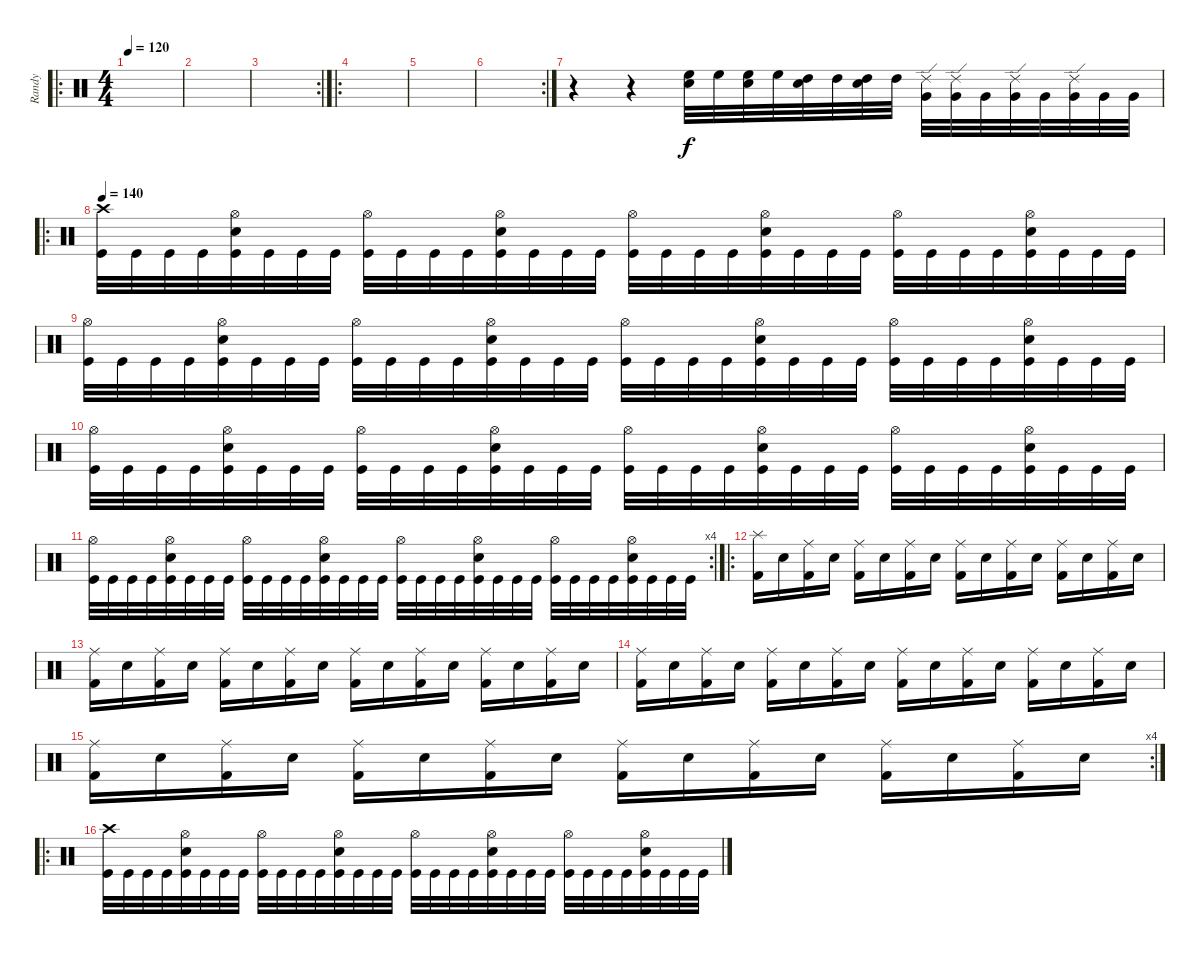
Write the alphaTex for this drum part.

\track ("Randy" "Randy") {instrument percussion}
\staff {score}
\articulation defaults
\ro
\ts (4 4)
\tempo 120
\clef neutral
\ks c
|
|
\rc 2
|
\ro
|
|
\rc 2
|
r.4 r.4 ("Snare (hit) 2" "High Floor Tom (hit)").32 "High Floor Tom (hit)".32 ("Snare (hit) 2" "High Floor Tom (hit)").32 "High Floor Tom (hit)".32 ("Snare (hit) 2" "High Tom (hit)").32 "High Tom (hit)".32 ("Snare (hit) 2" "High Tom (hit)").32 "High Tom (hit)".32 ("Ride (edge) 2" "Very Low Tom (hit)").32 ("Ride (edge) 2" "Very Low Tom (hit)").32 "Very Low Tom (hit)".32 ("Ride (edge) 2" "Very Low Tom (hit)").32 "Very Low Tom (hit)".32 ("Ride (edge) 2" "Very Low Tom (hit)").32 "Very Low Tom (hit)".32 "Very Low Tom (hit)".32 |
\ro
\tempo 140
("Kick (hit)" "Crash high (hit)").32 "Kick (hit)".32 "Kick (hit)".32 "Kick (hit)".32 ("Kick (hit)" "Snare (hit) 2" "Hi-Hat (open)").32 "Kick (hit)".32 "Kick (hit)".32 "Kick (hit)".32 ("Kick (hit)" "Hi-Hat (open)").32 "Kick (hit)".32 "Kick (hit)".32 "Kick (hit)".32 ("Kick (hit)" "Snare (hit) 2" "Hi-Hat (open)").32 "Kick (hit)".32 "Kick (hit)".32 "Kick (hit)".32 ("Kick (hit)" "Hi-Hat (open)").32 "Kick (hit)".32 "Kick (hit)".32 "Kick (hit)".32 ("Kick (hit)" "Snare (hit) 2" "Hi-Hat (open)").32 "Kick (hit)".32 "Kick (hit)".32 "Kick (hit)".32 ("Kick (hit)" "Hi-Hat (open)").32 "Kick (hit)".32 "Kick (hit)".32 "Kick (hit)".32 ("Kick (hit)" "Snare (hit) 2" "Hi-Hat (open)").32 "Kick (hit)".32 "Kick (hit)".32 "Kick (hit)".32 |
("Kick (hit)" "Hi-Hat (open)").32 "Kick (hit)".32 "Kick (hit)".32 "Kick (hit)".32 ("Kick (hit)" "Snare (hit) 2" "Hi-Hat (open)").32 "Kick (hit)".32 "Kick (hit)".32 "Kick (hit)".32 ("Kick (hit)" "Hi-Hat (open)").32 "Kick (hit)".32 "Kick (hit)".32 "Kick (hit)".32 ("Kick (hit)" "Snare (hit) 2" "Hi-Hat (open)").32 "Kick (hit)".32 "Kick (hit)".32 "Kick (hit)".32 ("Kick (hit)" "Hi-Hat (open)").32 "Kick (hit)".32 "Kick (hit)".32 "Kick (hit)".32 ("Kick (hit)" "Snare (hit) 2" "Hi-Hat (open)").32 "Kick (hit)".32 "Kick (hit)".32 "Kick (hit)".32 ("Kick (hit)" "Hi-Hat (open)").32 "Kick (hit)".32 "Kick (hit)".32 "Kick (hit)".32 ("Kick (hit)" "Snare (hit) 2" "Hi-Hat (open)").32 "Kick (hit)".32 "Kick (hit)".32 "Kick (hit)".32 |
("Kick (hit)" "Hi-Hat (open)").32 "Kick (hit)".32 "Kick (hit)".32 "Kick (hit)".32 ("Kick (hit)" "Snare (hit) 2" "Hi-Hat (open)").32 "Kick (hit)".32 "Kick (hit)".32 "Kick (hit)".32 ("Kick (hit)" "Hi-Hat (open)").32 "Kick (hit)".32 "Kick (hit)".32 "Kick (hit)".32 ("Kick (hit)" "Snare (hit) 2" "Hi-Hat (open)").32 "Kick (hit)".32 "Kick (hit)".32 "Kick (hit)".32 ("Kick (hit)" "Hi-Hat (open)").32 "Kick (hit)".32 "Kick (hit)".32 "Kick (hit)".32 ("Kick (hit)" "Snare (hit) 2" "Hi-Hat (open)").32 "Kick (hit)".32 "Kick (hit)".32 "Kick (hit)".32 ("Kick (hit)" "Hi-Hat (open)").32 "Kick (hit)".32 "Kick (hit)".32 "Kick (hit)".32 ("Kick (hit)" "Snare (hit) 2" "Hi-Hat (open)").32 "Kick (hit)".32 "Kick (hit)".32 "Kick (hit)".32 |
\rc 4
("Kick (hit)" "Hi-Hat (open)").32 "Kick (hit)".32 "Kick (hit)".32 "Kick (hit)".32 ("Kick (hit)" "Snare (hit) 2" "Hi-Hat (open)").32 "Kick (hit)".32 "Kick (hit)".32 "Kick (hit)".32 ("Kick (hit)" "Hi-Hat (open)").32 "Kick (hit)".32 "Kick (hit)".32 "Kick (hit)".32 ("Kick (hit)" "Snare (hit) 2" "Hi-Hat (open)").32 "Kick (hit)".32 "Kick (hit)".32 "Kick (hit)".32 ("Kick (hit)" "Hi-Hat (open)").32 "Kick (hit)".32 "Kick (hit)".32 "Kick (hit)".32 ("Kick (hit)" "Snare (hit) 2" "Hi-Hat (open)").32 "Kick (hit)".32 "Kick (hit)".32 "Kick (hit)".32 ("Kick (hit)" "Hi-Hat (open)").32 "Kick (hit)".32 "Kick (hit)".32 "Kick (hit)".32 ("Kick (hit)" "Snare (hit) 2" "Hi-Hat (open)").32 "Kick (hit)".32 "Kick (hit)".32 "Kick (hit)".32 |
\ro
("Splash (hit)" "Kick (hit) 2").16 "Snare (hit) 2".16 ("Ride (middle)" "Kick (hit) 2").16 "Snare (hit) 2".16 ("Ride (middle)" "Kick (hit) 2").16 "Snare (hit) 2".16 ("Ride (middle)" "Kick (hit) 2").16 "Snare (hit) 2".16 ("Ride (middle)" "Kick (hit) 2").16 "Snare (hit) 2".16 ("Ride (middle)" "Kick (hit) 2").16 "Snare (hit) 2".16 ("Ride (middle)" "Kick (hit) 2").16 "Snare (hit) 2".16 ("Ride (middle)" "Kick (hit) 2").16 "Snare (hit) 2".16 |
("Ride (middle)" "Kick (hit) 2").16 "Snare (hit) 2".16 ("Ride (middle)" "Kick (hit) 2").16 "Snare (hit) 2".16 ("Ride (middle)" "Kick (hit) 2").16 "Snare (hit) 2".16 ("Ride (middle)" "Kick (hit) 2").16 "Snare (hit) 2".16 ("Ride (middle)" "Kick (hit) 2").16 "Snare (hit) 2".16 ("Ride (middle)" "Kick (hit) 2").16 "Snare (hit) 2".16 ("Ride (middle)" "Kick (hit) 2").16 "Snare (hit) 2".16 ("Ride (middle)" "Kick (hit) 2").16 "Snare (hit) 2".16 |
("Ride (middle)" "Kick (hit) 2").16 "Snare (hit) 2".16 ("Ride (middle)" "Kick (hit) 2").16 "Snare (hit) 2".16 ("Ride (middle)" "Kick (hit) 2").16 "Snare (hit) 2".16 ("Ride (middle)" "Kick (hit) 2").16 "Snare (hit) 2".16 ("Ride (middle)" "Kick (hit) 2").16 "Snare (hit) 2".16 ("Ride (middle)" "Kick (hit) 2").16 "Snare (hit) 2".16 ("Ride (middle)" "Kick (hit) 2").16 "Snare (hit) 2".16 ("Ride (middle)" "Kick (hit) 2").16 "Snare (hit) 2".16 |
\rc 4
("Ride (middle)" "Kick (hit) 2").16 "Snare (hit) 2".16 ("Ride (middle)" "Kick (hit) 2").16 "Snare (hit) 2".16 ("Ride (middle)" "Kick (hit) 2").16 "Snare (hit) 2".16 ("Ride (middle)" "Kick (hit) 2").16 "Snare (hit) 2".16 ("Ride (middle)" "Kick (hit) 2").16 "Snare (hit) 2".16 ("Ride (middle)" "Kick (hit) 2").16 "Snare (hit) 2".16 ("Ride (middle)" "Kick (hit) 2").16 "Snare (hit) 2".16 ("Ride (middle)" "Kick (hit) 2").16 "Snare (hit) 2".16 |
\ro
("Kick (hit)" "Crash high (hit)").32 "Kick (hit)".32 "Kick (hit)".32 "Kick (hit)".32 ("Kick (hit)" "Snare (hit) 2" "Hi-Hat (open)").32 "Kick (hit)".32 "Kick (hit)".32 "Kick (hit)".32 ("Kick (hit)" "Hi-Hat (open)").32 "Kick (hit)".32 "Kick (hit)".32 "Kick (hit)".32 ("Kick (hit)" "Snare (hit) 2" "Hi-Hat (open)").32 "Kick (hit)".32 "Kick (hit)".32 "Kick (hit)".32 ("Kick (hit)" "Hi-Hat (open)").32 "Kick (hit)".32 "Kick (hit)".32 "Kick (hit)".32 ("Kick (hit)" "Snare (hit) 2" "Hi-Hat (open)").32 "Kick (hit)".32 "Kick (hit)".32 "Kick (hit)".32 ("Kick (hit)" "Hi-Hat (open)").32 "Kick (hit)".32 "Kick (hit)".32 "Kick (hit)".32 ("Kick (hit)" "Snare (hit) 2" "Hi-Hat (open)").32 "Kick (hit)".32 "Kick (hit)".32 "Kick (hit)".32
